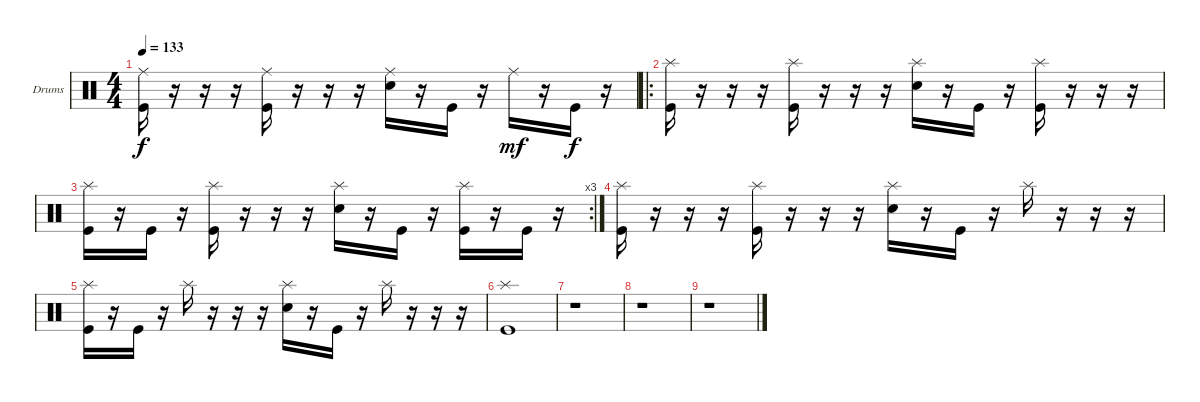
\bracketExtendMode groupsimilarinstruments
\firstSystemTrackNameOrientation horizontal
\otherSystemsTrackNameOrientation horizontal
\track ("Drumkit" "Drums") {instrument percussion}
\staff {score}
\articulation defaults
\ts (4 4)
\tempo 133
\clef neutral
\ks c
("Kick (hit)" "Ride (middle)").16{dy f} r.16 r.16 r.16 ("Kick (hit)" "Ride (middle)").16 r.16 r.16 r.16 ("Snare (hit) 2" "Ride (middle)").16 r.16 "Kick (hit)".16 r.16 "Ride (middle)".16{dy mf} r.16 "Kick (hit)".16{dy f} r.16 |
\ro
("Splash (hit)" "Kick (hit)").16 r.16 r.16 r.16 ("Splash (hit)" "Kick (hit)").16 r.16 r.16 r.16 ("Splash (hit)" "Snare (hit) 2").16 r.16 "Kick (hit)".16 r.16 ("Splash (hit)" "Kick (hit)").16 r.16 r.16 r.16 |
\rc 3
("Splash (hit)" "Kick (hit)").16 r.16 "Kick (hit)".16 r.16 ("Splash (hit)" "Kick (hit)").16 r.16 r.16 r.16 ("Splash (hit)" "Snare (hit) 2").16 r.16 "Kick (hit)".16 r.16 ("Splash (hit)" "Kick (hit)").16 r.16 "Kick (hit)".16 r.16 |
("Splash (hit)" "Kick (hit)").16 r.16 r.16 r.16 ("Splash (hit)" "Kick (hit)").16 r.16 r.16 r.16 ("Splash (hit)" "Snare (hit) 2").16 r.16 "Kick (hit)".16 r.16 "Splash (hit)".16 r.16 r.16 r.16 |
("Splash (hit)" "Kick (hit)").16 r.16 "Kick (hit)".16 r.16 "Splash (hit)".16 r.16 r.16 r.16 ("Splash (hit)" "Snare (hit) 2").16 r.16 "Kick (hit)".16 r.16 "Splash (hit)".16 r.16 r.16 r.16 |
("Splash (hit)" "Kick (hit)").1 |
r.1 |
r.1 |
r.1
